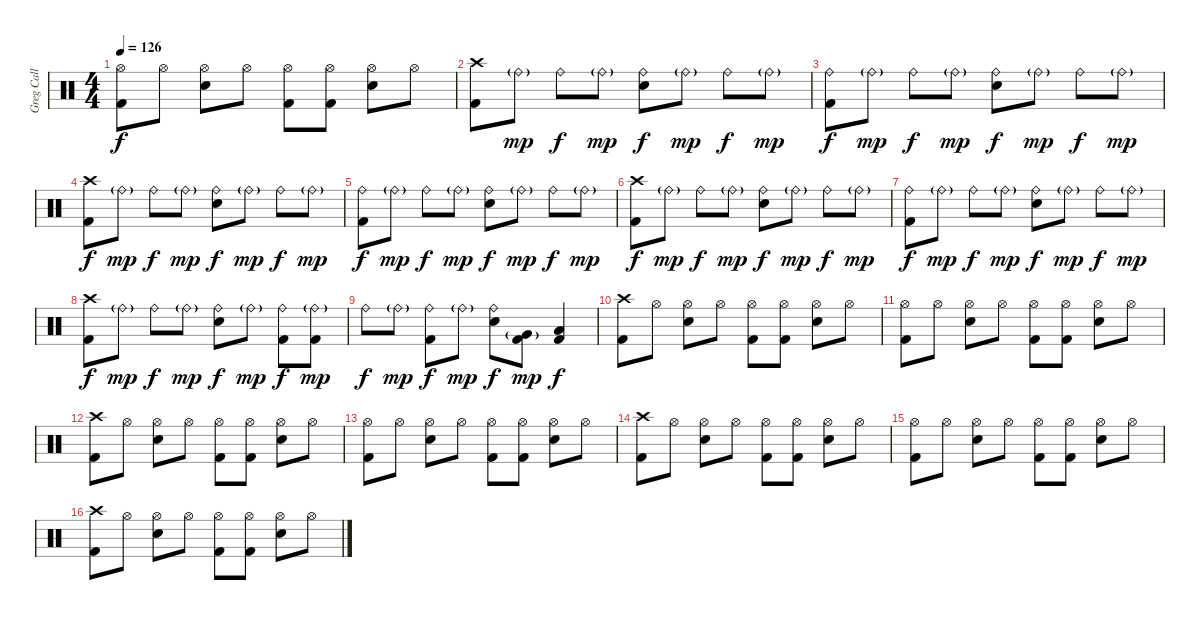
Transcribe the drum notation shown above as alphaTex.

\track ("Greg Call (Drums)" "Greg Call ") {instrument percussion}
\staff {score}
\articulation defaults
\ts (4 4)
\tempo 126
\clef neutral
\ks c
("Hi-Hat (open)" "Kick (hit) 2").8{dy f} "Hi-Hat (open)".8 ("Hi-Hat (open)" "Snare (hit) 2").8 "Hi-Hat (open)".8 ("Hi-Hat (open)" "Kick (hit) 2").8 ("Hi-Hat (open)" "Kick (hit) 2").8 ("Hi-Hat (open)" "Snare (hit) 2").8 "Hi-Hat (open)".8 |
("Crash high (hit)" "Kick (hit) 2").8 "Ride (bell)"{g}.8{dy mp} "Ride (bell)".8{dy f} "Ride (bell)"{g}.8{dy mp} ("Ride (bell)" "Snare (hit) 2").8{dy f} "Ride (bell)"{g}.8{dy mp} "Ride (bell)".8{dy f} "Ride (bell)"{g}.8{dy mp} |
("Ride (bell)" "Kick (hit) 2").8{dy f} "Ride (bell)"{g}.8{dy mp} "Ride (bell)".8{dy f} "Ride (bell)"{g}.8{dy mp} ("Ride (bell)" "Snare (hit) 2").8{dy f} "Ride (bell)"{g}.8{dy mp} "Ride (bell)".8{dy f} "Ride (bell)"{g}.8{dy mp} |
("Crash high (hit)" "Kick (hit) 2").8{dy f} "Ride (bell)"{g}.8{dy mp} "Ride (bell)".8{dy f} "Ride (bell)"{g}.8{dy mp} ("Ride (bell)" "Snare (hit) 2").8{dy f} "Ride (bell)"{g}.8{dy mp} "Ride (bell)".8{dy f} "Ride (bell)"{g}.8{dy mp} |
("Ride (bell)" "Kick (hit) 2").8{dy f} "Ride (bell)"{g}.8{dy mp} "Ride (bell)".8{dy f} "Ride (bell)"{g}.8{dy mp} ("Ride (bell)" "Snare (hit) 2").8{dy f} "Ride (bell)"{g}.8{dy mp} "Ride (bell)".8{dy f} "Ride (bell)"{g}.8{dy mp} |
("Crash high (hit)" "Kick (hit) 2").8{dy f} "Ride (bell)"{g}.8{dy mp} "Ride (bell)".8{dy f} "Ride (bell)"{g}.8{dy mp} ("Ride (bell)" "Snare (hit) 2").8{dy f} "Ride (bell)"{g}.8{dy mp} "Ride (bell)".8{dy f} "Ride (bell)"{g}.8{dy mp} |
("Ride (bell)" "Kick (hit) 2").8{dy f} "Ride (bell)"{g}.8{dy mp} "Ride (bell)".8{dy f} "Ride (bell)"{g}.8{dy mp} ("Ride (bell)" "Snare (hit) 2").8{dy f} "Ride (bell)"{g}.8{dy mp} "Ride (bell)".8{dy f} "Ride (bell)"{g}.8{dy mp} |
("Crash high (hit)" "Kick (hit) 2").8{dy f} "Ride (bell)"{g}.8{dy mp} "Ride (bell)".8{dy f} "Ride (bell)"{g}.8{dy mp} ("Ride (bell)" "Snare (hit) 2").8{dy f} "Ride (bell)"{g}.8{dy mp} ("Ride (bell)" "Kick (hit) 2").8{dy f} ("Ride (bell)"{g} "Kick (hit) 2").8{dy mp} |
"Ride (bell)".8{dy f} "Ride (bell)"{g}.8{dy mp} ("Ride (bell)" "Kick (hit) 2").8{dy f} "Ride (bell)"{g}.8{dy mp} ("Ride (bell)" "Snare (hit) 2").8{dy f} ("Very Low Tom (hit)"{g} "Kick (hit) 2").8{dy mp} ("Low Floor Tom (hit)" "Kick (hit) 2").4{dy f} |
("Crash high (hit)" "Kick (hit) 2").8 "Hi-Hat (open)".8 ("Hi-Hat (open)" "Snare (hit) 2").8 "Hi-Hat (open)".8 ("Hi-Hat (open)" "Kick (hit) 2").8 ("Hi-Hat (open)" "Kick (hit) 2").8 ("Hi-Hat (open)" "Snare (hit) 2").8 "Hi-Hat (open)".8 |
("Hi-Hat (open)" "Kick (hit) 2").8 "Hi-Hat (open)".8 ("Hi-Hat (open)" "Snare (hit) 2").8 "Hi-Hat (open)".8 ("Hi-Hat (open)" "Kick (hit) 2").8 ("Hi-Hat (open)" "Kick (hit) 2").8 ("Hi-Hat (open)" "Snare (hit) 2").8 "Hi-Hat (open)".8 |
("Crash high (hit)" "Kick (hit) 2").8 "Hi-Hat (open)".8 ("Hi-Hat (open)" "Snare (hit) 2").8 "Hi-Hat (open)".8 ("Hi-Hat (open)" "Kick (hit) 2").8 ("Hi-Hat (open)" "Kick (hit) 2").8 ("Hi-Hat (open)" "Snare (hit) 2").8 "Hi-Hat (open)".8 |
("Hi-Hat (open)" "Kick (hit) 2").8 "Hi-Hat (open)".8 ("Hi-Hat (open)" "Snare (hit) 2").8 "Hi-Hat (open)".8 ("Hi-Hat (open)" "Kick (hit) 2").8 ("Hi-Hat (open)" "Kick (hit) 2").8 ("Hi-Hat (open)" "Snare (hit) 2").8 "Hi-Hat (open)".8 |
("Crash high (hit)" "Kick (hit) 2").8 "Hi-Hat (open)".8 ("Hi-Hat (open)" "Snare (hit) 2").8 "Hi-Hat (open)".8 ("Hi-Hat (open)" "Kick (hit) 2").8 ("Hi-Hat (open)" "Kick (hit) 2").8 ("Hi-Hat (open)" "Snare (hit) 2").8 "Hi-Hat (open)".8 |
("Hi-Hat (open)" "Kick (hit) 2").8 "Hi-Hat (open)".8 ("Hi-Hat (open)" "Snare (hit) 2").8 "Hi-Hat (open)".8 ("Hi-Hat (open)" "Kick (hit) 2").8 ("Hi-Hat (open)" "Kick (hit) 2").8 ("Hi-Hat (open)" "Snare (hit) 2").8 "Hi-Hat (open)".8 |
("Crash high (hit)" "Kick (hit) 2").8 "Hi-Hat (open)".8 ("Hi-Hat (open)" "Snare (hit) 2").8 "Hi-Hat (open)".8 ("Hi-Hat (open)" "Kick (hit) 2").8 ("Hi-Hat (open)" "Kick (hit) 2").8 ("Hi-Hat (open)" "Snare (hit) 2").8 "Hi-Hat (open)".8
